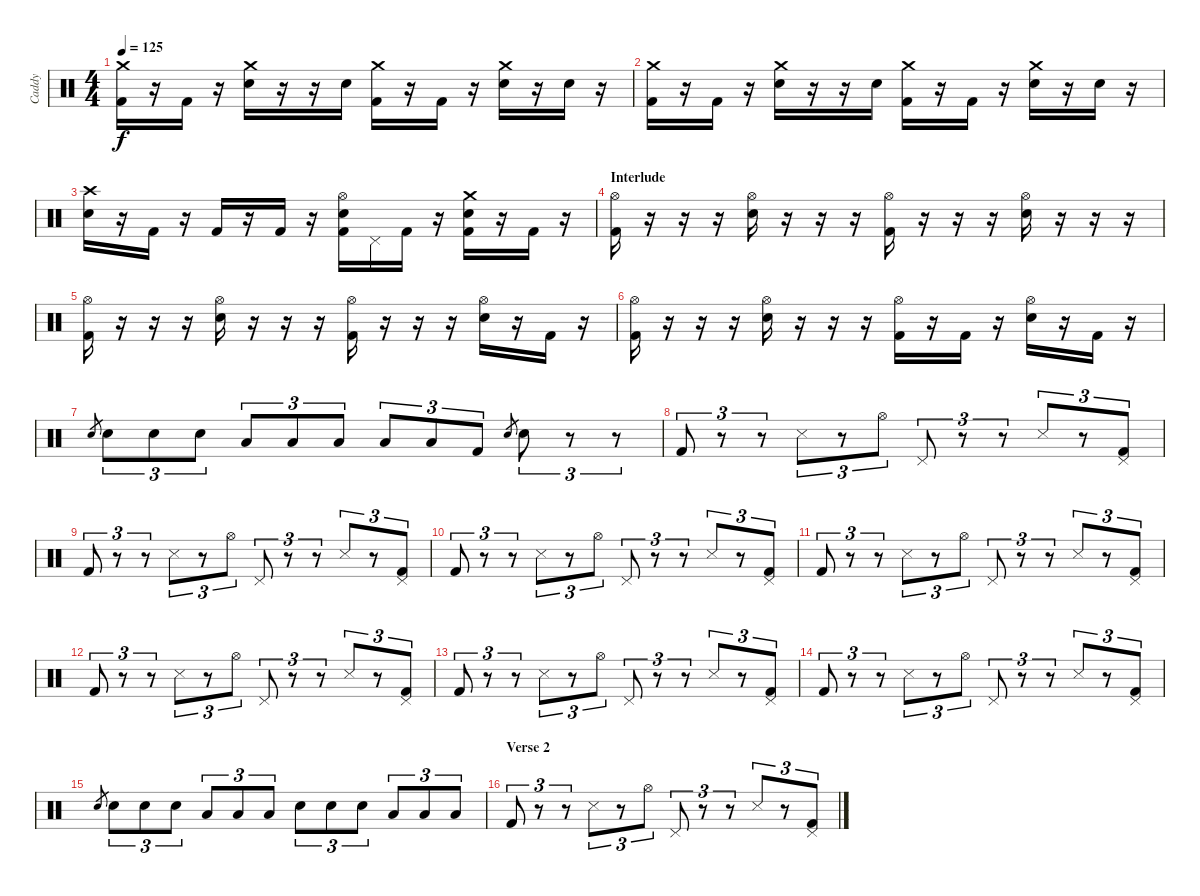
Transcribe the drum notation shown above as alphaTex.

\track ("Caddy" "Caddy") {instrument percussion}
\staff {score}
\articulation defaults
\ts (4 4)
\tempo 125
\clef neutral
\ks c
("Crash medium (hit)" "Kick (hit) 2").16{dy f} r.16 "Kick (hit) 2".16 r.16 ("Crash medium (hit)" "Electric Snare (hit)").16 r.16 r.16 "Electric Snare (hit)".16 ("Crash medium (hit)" "Kick (hit) 2").16 r.16 "Kick (hit) 2".16 r.16 ("Crash medium (hit)" "Electric Snare (hit)").16 r.16 "Electric Snare (hit)".16 r.16 |
("Crash medium (hit)" "Kick (hit) 2").16 r.16 "Kick (hit) 2".16 r.16 ("Crash medium (hit)" "Electric Snare (hit)").16 r.16 r.16 "Electric Snare (hit)".16 ("Crash medium (hit)" "Kick (hit) 2").16 r.16 "Kick (hit) 2".16 r.16 ("Crash medium (hit)" "Electric Snare (hit)").16 r.16 "Electric Snare (hit)".16 r.16 |
("Crash high (hit)" "Electric Snare (hit)").16 r.16 "Kick (hit) 2".16 r.16 "Kick (hit) 2".16 r.16 "Kick (hit) 2".16 r.16 ("Hi-Hat (open)" "Electric Snare (hit)" "Kick (hit) 2").16 "Pedal Hi-Hat (hit)".16 "Kick (hit) 2".16 r.16 ("Crash medium (hit)" "Electric Snare (hit)" "Kick (hit) 2").16 r.16 "Kick (hit) 2".16 r.16 |
\section ("" "Interlude")
("Hi-Hat (open)" "Kick (hit) 2").16 r.16 r.16 r.16 ("Hi-Hat (open)" "Electric Snare (hit)").16 r.16 r.16 r.16 ("Hi-Hat (open)" "Kick (hit) 2").16 r.16 r.16 r.16 ("Hi-Hat (open)" "Electric Snare (hit)").16 r.16 r.16 r.16 |
("Hi-Hat (open)" "Kick (hit) 2").16 r.16 r.16 r.16 ("Hi-Hat (open)" "Electric Snare (hit)").16 r.16 r.16 r.16 ("Hi-Hat (open)" "Kick (hit) 2").16 r.16 r.16 r.16 ("Hi-Hat (open)" "Electric Snare (hit)").16 r.16 "Kick (hit) 2".16 r.16 |
("Hi-Hat (open)" "Kick (hit) 2").16 r.16 r.16 r.16 ("Hi-Hat (open)" "Electric Snare (hit)").16 r.16 r.16 r.16 ("Hi-Hat (open)" "Kick (hit) 2").16 r.16 "Kick (hit) 2".16 r.16 ("Hi-Hat (open)" "Electric Snare (hit)").16 r.16 "Kick (hit) 2".16 r.16 |
"Electric Snare (hit)".8{gr} "Electric Snare (hit)".8{tu (3 2)} "Electric Snare (hit)".8{tu (3 2)} "Electric Snare (hit)".8{tu (3 2)} "Low Tom (hit)".8{tu (3 2)} "Low Tom (hit)".8{tu (3 2)} "Low Tom (hit)".8{tu (3 2)} "Low Floor Tom (hit)".8{tu (3 2)} "Low Floor Tom (hit)".8{tu (3 2)} "Kick (hit) 2".8{tu (3 2)} "Electric Snare (hit)".8{gr} "Electric Snare (hit)".8{tu (3 2)} r.8{tu (3 2)} r.8{tu (3 2)} |
"Kick (hit) 2".8{tu (3 2)} r.8{tu (3 2)} r.8{tu (3 2)} "Snare (side stick) 3".8{tu (3 2)} r.8{tu (3 2)} "Hi-Hat (open)".8{tu (3 2)} "Pedal Hi-Hat (hit)".8{tu (3 2)} r.8{tu (3 2)} r.8{tu (3 2)} "Snare (side stick) 3".8{tu (3 2)} r.8{tu (3 2)} ("Pedal Hi-Hat (hit)" "Kick (hit) 2").8{tu (3 2)} |
"Kick (hit) 2".8{tu (3 2)} r.8{tu (3 2)} r.8{tu (3 2)} "Snare (side stick) 3".8{tu (3 2)} r.8{tu (3 2)} "Hi-Hat (open)".8{tu (3 2)} "Pedal Hi-Hat (hit)".8{tu (3 2)} r.8{tu (3 2)} r.8{tu (3 2)} "Snare (side stick) 3".8{tu (3 2)} r.8{tu (3 2)} ("Pedal Hi-Hat (hit)" "Kick (hit) 2").8{tu (3 2)} |
"Kick (hit) 2".8{tu (3 2)} r.8{tu (3 2)} r.8{tu (3 2)} "Snare (side stick) 3".8{tu (3 2)} r.8{tu (3 2)} "Hi-Hat (open)".8{tu (3 2)} "Pedal Hi-Hat (hit)".8{tu (3 2)} r.8{tu (3 2)} r.8{tu (3 2)} "Snare (side stick) 3".8{tu (3 2)} r.8{tu (3 2)} ("Pedal Hi-Hat (hit)" "Kick (hit) 2").8{tu (3 2)} |
"Kick (hit) 2".8{tu (3 2)} r.8{tu (3 2)} r.8{tu (3 2)} "Snare (side stick) 3".8{tu (3 2)} r.8{tu (3 2)} "Hi-Hat (open)".8{tu (3 2)} "Pedal Hi-Hat (hit)".8{tu (3 2)} r.8{tu (3 2)} r.8{tu (3 2)} "Snare (side stick) 3".8{tu (3 2)} r.8{tu (3 2)} ("Pedal Hi-Hat (hit)" "Kick (hit) 2").8{tu (3 2)} |
"Kick (hit) 2".8{tu (3 2)} r.8{tu (3 2)} r.8{tu (3 2)} "Snare (side stick) 3".8{tu (3 2)} r.8{tu (3 2)} "Hi-Hat (open)".8{tu (3 2)} "Pedal Hi-Hat (hit)".8{tu (3 2)} r.8{tu (3 2)} r.8{tu (3 2)} "Snare (side stick) 3".8{tu (3 2)} r.8{tu (3 2)} ("Pedal Hi-Hat (hit)" "Kick (hit) 2").8{tu (3 2)} |
"Kick (hit) 2".8{tu (3 2)} r.8{tu (3 2)} r.8{tu (3 2)} "Snare (side stick) 3".8{tu (3 2)} r.8{tu (3 2)} "Hi-Hat (open)".8{tu (3 2)} "Pedal Hi-Hat (hit)".8{tu (3 2)} r.8{tu (3 2)} r.8{tu (3 2)} "Snare (side stick) 3".8{tu (3 2)} r.8{tu (3 2)} ("Pedal Hi-Hat (hit)" "Kick (hit) 2").8{tu (3 2)} |
"Kick (hit) 2".8{tu (3 2)} r.8{tu (3 2)} r.8{tu (3 2)} "Snare (side stick) 3".8{tu (3 2)} r.8{tu (3 2)} "Hi-Hat (open)".8{tu (3 2)} "Pedal Hi-Hat (hit)".8{tu (3 2)} r.8{tu (3 2)} r.8{tu (3 2)} "Snare (side stick) 3".8{tu (3 2)} r.8{tu (3 2)} ("Pedal Hi-Hat (hit)" "Kick (hit) 2").8{tu (3 2)} |
"Electric Snare (hit)".8{gr} "Electric Snare (hit)".8{tu (3 2)} "Electric Snare (hit)".8{tu (3 2)} "Electric Snare (hit)".8{tu (3 2)} "Low Tom (hit)".8{tu (3 2)} "Low Tom (hit)".8{tu (3 2)} "Low Tom (hit)".8{tu (3 2)} "Electric Snare (hit)".8{tu (3 2)} "Electric Snare (hit)".8{tu (3 2)} "Electric Snare (hit)".8{tu (3 2)} "Low Floor Tom (hit)".8{tu (3 2)} "Low Floor Tom (hit)".8{tu (3 2)} "Low Floor Tom (hit)".8{tu (3 2)} |
\section ("" "Verse 2")
"Kick (hit) 2".8{tu (3 2)} r.8{tu (3 2)} r.8{tu (3 2)} "Snare (side stick) 3".8{tu (3 2)} r.8{tu (3 2)} "Hi-Hat (open)".8{tu (3 2)} "Pedal Hi-Hat (hit)".8{tu (3 2)} r.8{tu (3 2)} r.8{tu (3 2)} "Snare (side stick) 3".8{tu (3 2)} r.8{tu (3 2)} ("Pedal Hi-Hat (hit)" "Kick (hit) 2").8{tu (3 2)}
